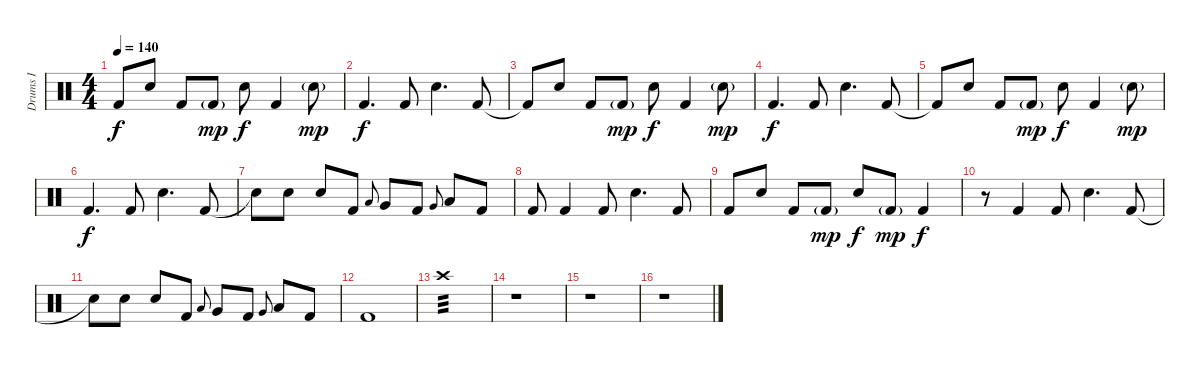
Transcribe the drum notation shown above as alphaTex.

\track ("Drums I" "Drums I") {instrument percussion}
\staff {score}
\articulation defaults
\ts (4 4)
\tempo 140
\clef neutral
\ks c "Kick (hit) 2"{t}.8{dy f} "Electric Snare (hit)".8 "Kick (hit) 2".8 "Kick (hit) 2"{g}.8{dy mp} "Electric Snare (hit)".8{dy f} "Kick (hit) 2".4 "Electric Snare (hit)"{g}.8{dy mp}
|
"Kick (hit) 2".4{d dy f} "Kick (hit) 2".8 "Electric Snare (hit)".4{d} "Kick (hit) 2".8 |
"Kick (hit) 2"{t}.8 "Electric Snare (hit)".8 "Kick (hit) 2".8 "Kick (hit) 2"{g}.8{dy mp} "Electric Snare (hit)".8{dy f} "Kick (hit) 2".4 "Electric Snare (hit)"{g}.8{dy mp} |
"Kick (hit) 2".4{d dy f} "Kick (hit) 2".8 "Electric Snare (hit)".4{d} "Kick (hit) 2".8 |
"Kick (hit) 2"{t}.8 "Electric Snare (hit)".8 "Kick (hit) 2".8 "Kick (hit) 2"{g}.8{dy mp} "Electric Snare (hit)".8{dy f} "Kick (hit) 2".4 "Electric Snare (hit)"{g}.8{dy mp} |
"Kick (hit) 2".4{d dy f} "Kick (hit) 2".8 "Electric Snare (hit)".4{d} "Kick (hit) 2".8 |
"Snare (hit)"{t}.8 "Electric Snare (hit)".8 "Electric Snare (hit)".8 "Kick (hit) 2".8 "Low Tom (hit)".8{gr onbeat} "Very Low Tom (hit)".8 "Kick (hit) 2".8 "Very Low Tom (hit)".8{gr onbeat} "Low Floor Tom (hit)".8 "Kick (hit) 2".8 |
"Kick (hit) 2".8 "Kick (hit) 2".4 "Kick (hit) 2".8 "Electric Snare (hit)".4{d} "Kick (hit) 2".8 |
"Kick (hit) 2".8 "Electric Snare (hit)".8 "Kick (hit) 2".8 "Kick (hit) 2"{g}.8{dy mp} "Electric Snare (hit)".8{dy f} "Kick (hit) 2"{g}.8{dy mp} "Kick (hit) 2".4{dy f} |
r.8 "Kick (hit) 2".4 "Kick (hit) 2".8 "Electric Snare (hit)".4{d} "Kick (hit) 2".8 |
"Snare (hit)"{t}.8 "Electric Snare (hit)".8 "Electric Snare (hit)".8 "Kick (hit) 2".8 "Low Tom (hit)".8{gr onbeat} "Very Low Tom (hit)".8 "Kick (hit) 2".8 "Very Low Tom (hit)".8{gr onbeat} "Low Floor Tom (hit)".8 "Kick (hit) 2".8 |
"Kick (hit) 2".1 |
"Crash high (hit)".1{tp 3} |
r.1 |
r.1 |
r.1
